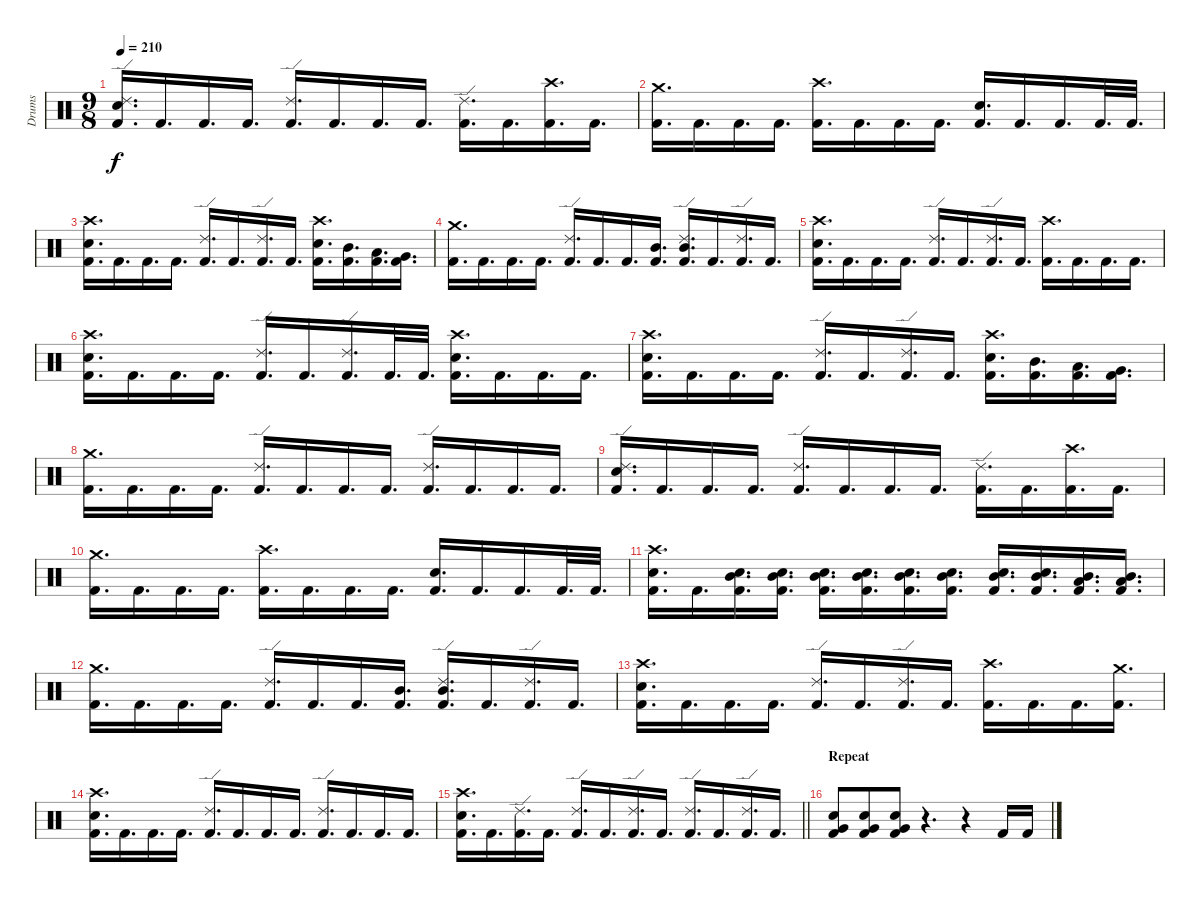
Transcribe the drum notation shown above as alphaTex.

\track ("Drums" "Drums") {instrument percussion}
\staff {score}
\articulation defaults
\ts (9 8)
\tempo 210
\clef neutral
\ks c
("Ride (edge) 2" "Electric Snare (hit)" "Kick (hit) 2").16{d dy f} "Kick (hit) 2".16{d} "Kick (hit) 2".16{d} "Kick (hit) 2".16{d} ("Ride (edge) 2" "Kick (hit) 2").16{d} "Kick (hit) 2".16{d} "Kick (hit) 2".16{d} "Kick (hit) 2".16{d} ("Ride (edge) 2" "Kick (hit) 2").16{d} "Kick (hit) 2".16{d} ("Crash high (hit)" "Kick (hit) 2").16{d} "Kick (hit) 2".16{d} |
("Crash medium (hit)" "Kick (hit) 2").16{d} "Kick (hit) 2".16{d} "Kick (hit) 2".16{d} "Kick (hit) 2".16{d} ("Crash high (hit)" "Kick (hit) 2").16{d} "Kick (hit) 2".16{d} "Kick (hit) 2".16{d} "Kick (hit) 2".16{d} ("Electric Snare (hit)" "Kick (hit) 2").16{d} "Kick (hit) 2".16{d} "Kick (hit) 2".16{d} "Kick (hit) 2".32{d} "Kick (hit) 2".32{d} |
("Crash high (hit)" "Electric Snare (hit)" "Kick (hit) 2").16{d} "Kick (hit) 2".16{d} "Kick (hit) 2".16{d} "Kick (hit) 2".16{d} ("Ride (edge) 2" "Kick (hit) 2").16{d} "Kick (hit) 2".16{d} ("Ride (edge) 2" "Kick (hit) 2").16{d} "Kick (hit) 2".16{d} ("Crash high (hit)" "Electric Snare (hit)" "Kick (hit) 2").16{d} ("Mid Tom (hit)" "Kick (hit) 2").16{d} ("Low Tom (hit)" "Kick (hit) 2").16{d} ("Very Low Tom (hit)" "Kick (hit) 2").16{d} |
("Crash medium (hit)" "Kick (hit) 2").16{d} "Kick (hit) 2".16{d} "Kick (hit) 2".16{d} "Kick (hit) 2".16{d} ("Ride (edge) 2" "Kick (hit) 2").16{d} "Kick (hit) 2".16{d} "Kick (hit) 2".16{d} ("Mid Tom (hit)" "Kick (hit) 2").16{d} ("Ride (edge) 2" "Mid Tom (hit)" "Kick (hit) 2").16{d} "Kick (hit) 2".16{d} ("Ride (edge) 2" "Kick (hit) 2").16{d} "Kick (hit) 2".16{d} |
("Crash high (hit)" "Electric Snare (hit)" "Kick (hit) 2").16{d} "Kick (hit) 2".16{d} "Kick (hit) 2".16{d} "Kick (hit) 2".16{d} ("Ride (edge) 2" "Kick (hit) 2").16{d} "Kick (hit) 2".16{d} ("Ride (edge) 2" "Kick (hit) 2").16{d} "Kick (hit) 2".16{d} ("Crash high (hit)" "Kick (hit) 2").16{d} "Kick (hit) 2".16{d} "Kick (hit) 2".16{d} "Kick (hit) 2".16{d} |
("Crash high (hit)" "Electric Snare (hit)" "Kick (hit) 2").16{d} "Kick (hit) 2".16{d} "Kick (hit) 2".16{d} "Kick (hit) 2".16{d} ("Ride (edge) 2" "Kick (hit) 2").16{d} "Kick (hit) 2".16{d} ("Ride (edge) 2" "Kick (hit) 2").16{d} "Kick (hit) 2".32{d} "Kick (hit) 2".32{d} ("Crash high (hit)" "Electric Snare (hit)" "Kick (hit) 2").16{d} "Kick (hit) 2".16{d} "Kick (hit) 2".16{d} "Kick (hit) 2".16{d} |
("Crash high (hit)" "Electric Snare (hit)" "Kick (hit) 2").16{d} "Kick (hit) 2".16{d} "Kick (hit) 2".16{d} "Kick (hit) 2".16{d} ("Ride (edge) 2" "Kick (hit) 2").16{d} "Kick (hit) 2".16{d} ("Ride (edge) 2" "Kick (hit) 2").16{d} "Kick (hit) 2".16{d} ("Crash high (hit)" "Electric Snare (hit)" "Kick (hit) 2").16{d} ("Mid Tom (hit)" "Kick (hit) 2").16{d} ("Low Tom (hit)" "Kick (hit) 2").16{d} ("Very Low Tom (hit)" "Kick (hit) 2").16{d} |
("Crash medium (hit)" "Kick (hit) 2").16{d} "Kick (hit) 2".16{d} "Kick (hit) 2".16{d} "Kick (hit) 2".16{d} ("Ride (edge) 2" "Kick (hit) 2").16{d} "Kick (hit) 2".16{d} "Kick (hit) 2".16{d} "Kick (hit) 2".16{d} ("Ride (edge) 2" "Kick (hit) 2").16{d} "Kick (hit) 2".16{d} "Kick (hit) 2".16{d} "Kick (hit) 2".16{d} |
("Ride (edge) 2" "Electric Snare (hit)" "Kick (hit) 2").16{d} "Kick (hit) 2".16{d} "Kick (hit) 2".16{d} "Kick (hit) 2".16{d} ("Ride (edge) 2" "Kick (hit) 2").16{d} "Kick (hit) 2".16{d} "Kick (hit) 2".16{d} "Kick (hit) 2".16{d} ("Ride (edge) 2" "Kick (hit) 2").16{d} "Kick (hit) 2".16{d} ("Crash high (hit)" "Kick (hit) 2").16{d} "Kick (hit) 2".16{d} |
("Crash medium (hit)" "Kick (hit) 2").16{d} "Kick (hit) 2".16{d} "Kick (hit) 2".16{d} "Kick (hit) 2".16{d} ("Crash high (hit)" "Kick (hit) 2").16{d} "Kick (hit) 2".16{d} "Kick (hit) 2".16{d} "Kick (hit) 2".16{d} ("Electric Snare (hit)" "Kick (hit) 2").16{d} "Kick (hit) 2".16{d} "Kick (hit) 2".16{d} "Kick (hit) 2".32{d} "Kick (hit) 2".32{d} |
("Crash high (hit)" "Electric Snare (hit)" "Kick (hit) 2").16{d} "Kick (hit) 2".16{d} ("Mid Tom (hit)" "Electric Snare (hit)" "Kick (hit) 2").16{d} ("Mid Tom (hit)" "Electric Snare (hit)" "Kick (hit) 2").16{d} ("Mid Tom (hit)" "Electric Snare (hit)" "Kick (hit) 2").16{d} ("Mid Tom (hit)" "Electric Snare (hit)" "Kick (hit) 2").16{d} ("Mid Tom (hit)" "Electric Snare (hit)" "Kick (hit) 2").16{d} ("Mid Tom (hit)" "Electric Snare (hit)" "Kick (hit) 2").16{d} ("Mid Tom (hit)" "Electric Snare (hit)" "Kick (hit) 2").16{d} ("Mid Tom (hit)" "Electric Snare (hit)" "Kick (hit) 2").16{d} ("Low Tom (hit)" "Mid Tom (hit)" "Kick (hit) 2").16{d} ("Low Tom (hit)" "Mid Tom (hit)" "Kick (hit) 2").16{d} |
("Crash medium (hit)" "Kick (hit) 2").16{d} "Kick (hit) 2".16{d} "Kick (hit) 2".16{d} "Kick (hit) 2".16{d} ("Ride (edge) 2" "Kick (hit) 2").16{d} "Kick (hit) 2".16{d} "Kick (hit) 2".16{d} ("Mid Tom (hit)" "Kick (hit) 2").16{d} ("Ride (edge) 2" "Mid Tom (hit)" "Kick (hit) 2").16{d} "Kick (hit) 2".16{d} ("Ride (edge) 2" "Kick (hit) 2").16{d} "Kick (hit) 2".16{d} |
("Crash high (hit)" "Electric Snare (hit)" "Kick (hit) 2").16{d} "Kick (hit) 2".16{d} "Kick (hit) 2".16{d} "Kick (hit) 2".16{d} ("Ride (edge) 2" "Kick (hit) 2").16{d} "Kick (hit) 2".16{d} ("Ride (edge) 2" "Kick (hit) 2").16{d} "Kick (hit) 2".16{d} ("Crash high (hit)" "Kick (hit) 2").16{d} "Kick (hit) 2".16{d} "Kick (hit) 2".16{d} ("Crash medium (hit)" "Kick (hit) 2").16{d} |
("Crash high (hit)" "Electric Snare (hit)" "Kick (hit) 2").16{d} "Kick (hit) 2".16{d} "Kick (hit) 2".16{d} "Kick (hit) 2".16{d} ("Ride (edge) 2" "Kick (hit) 2").16{d} "Kick (hit) 2".16{d} "Kick (hit) 2".16{d} "Kick (hit) 2".16{d} ("Ride (edge) 2" "Kick (hit) 2").16{d} "Kick (hit) 2".16{d} "Kick (hit) 2".16{d} "Kick (hit) 2".16{d} |
\barLineRight lightlight
("Crash high (hit)" "Electric Snare (hit)" "Kick (hit) 2").16{d} "Kick (hit) 2".16{d} ("Ride (edge) 2" "Kick (hit) 2").16{d} "Kick (hit) 2".16{d} ("Ride (edge) 2" "Kick (hit) 2").16{d} "Kick (hit) 2".16{d} ("Ride (edge) 2" "Kick (hit) 2").16{d} "Kick (hit) 2".16{d} ("Ride (edge) 2" "Kick (hit) 2").16{d} "Kick (hit) 2".16{d} ("Ride (edge) 2" "Kick (hit) 2").16{d} "Kick (hit) 2".16{d} |
\section ("" "Repeat")
("Very Low Tom (hit)" "Electric Snare (hit)" "Kick (hit) 2").8 ("Very Low Tom (hit)" "Electric Snare (hit)" "Kick (hit) 2").8 ("Very Low Tom (hit)" "Electric Snare (hit)" "Kick (hit) 2").8 r.4{d} r.4 "Kick (hit) 2".16 "Kick (hit) 2".16
